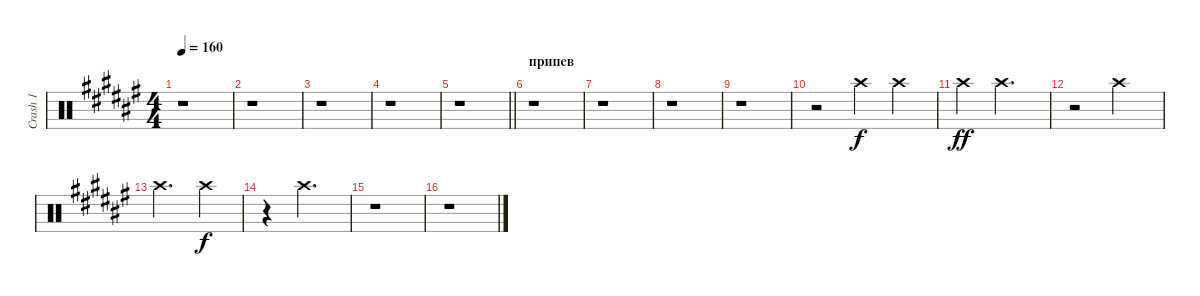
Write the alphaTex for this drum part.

\track ("Crash 1" "Crash 1") {instrument percussion}
\staff {score}
\articulation defaults
\ts (4 4)
\tempo 160
\clef neutral
\ks d#minor
r.1{dy ff} |
r.1 |
r.1 |
r.1 |
\barLineRight lightlight
r.1 |
\section ("" "припев")
r.1 |
r.1 |
r.1 |
r.1 |
r.2 "Crash high (hit)".4{dy f} "Crash high (hit)".4 |
"Crash high (hit)".4{dy ff} "Crash high (hit)".2{d} |
r.2 "Crash high (hit)".2 |
"Crash high (hit)".2{d} "Crash high (hit)".4{dy f} |
r.4 "Crash high (hit)".2{d} |
r.1 |
r.1
